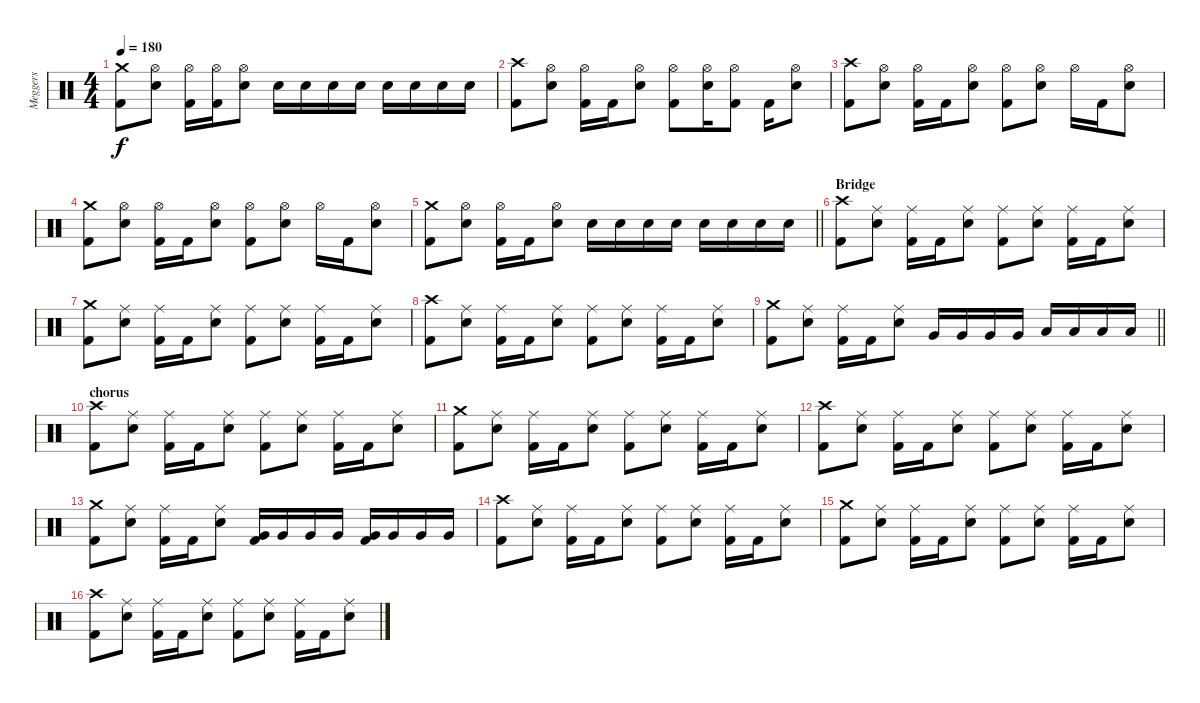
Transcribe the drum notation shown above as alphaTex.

\track ("Meggers" "Meggers") {instrument percussion}
\staff {score}
\articulation defaults
\ts (4 4)
\tempo 180
\clef neutral
\ks c
("Crash medium (hit)" "Kick (hit) 2").8{dy f} ("Hi-Hat (open)" "Snare (hit) 2").8 ("Hi-Hat (open)" "Kick (hit) 2").16 ("Hi-Hat (open)" "Kick (hit) 2").16 ("Hi-Hat (open)" "Snare (hit) 2").8 "Snare (hit) 2".16 "Snare (hit) 2".16 "Snare (hit) 2".16 "Snare (hit) 2".16 "Snare (hit) 2".16 "Snare (hit) 2".16 "Snare (hit) 2".16 "Snare (hit) 2".16 |
("Crash high (hit)" "Kick (hit) 2").8 ("Hi-Hat (open)" "Snare (hit) 2").8 ("Hi-Hat (open)" "Kick (hit) 2").16 "Kick (hit) 2".16 ("Hi-Hat (open)" "Snare (hit) 2").8 ("Hi-Hat (open)" "Kick (hit) 2").8 ("Hi-Hat (open)" "Snare (hit) 2").16 ("Hi-Hat (open)" "Kick (hit) 2").8 "Kick (hit) 2".16 ("Hi-Hat (open)" "Snare (hit) 2").8 |
("Crash high (hit)" "Kick (hit) 2").8 ("Hi-Hat (open)" "Snare (hit) 2").8 ("Hi-Hat (open)" "Kick (hit) 2").16 "Kick (hit) 2".16 ("Hi-Hat (open)" "Snare (hit) 2").8 ("Hi-Hat (open)" "Kick (hit) 2").8 ("Hi-Hat (open)" "Snare (hit) 2").8 "Hi-Hat (open)".16 "Kick (hit) 2".16 ("Hi-Hat (open)" "Snare (hit) 2").8 |
("Crash medium (hit)" "Kick (hit) 2").8 ("Hi-Hat (open)" "Snare (hit) 2").8 ("Hi-Hat (open)" "Kick (hit) 2").16 "Kick (hit) 2".16 ("Hi-Hat (open)" "Snare (hit) 2").8 ("Hi-Hat (open)" "Kick (hit) 2").8 ("Hi-Hat (open)" "Snare (hit) 2").8 "Hi-Hat (open)".16 "Kick (hit) 2".16 ("Hi-Hat (open)" "Snare (hit) 2").8 |
\barLineRight lightlight
("Crash medium (hit)" "Kick (hit) 2").8 ("Hi-Hat (open)" "Snare (hit) 2").8 ("Hi-Hat (open)" "Kick (hit) 2").16 "Kick (hit) 2".16 ("Hi-Hat (open)" "Snare (hit) 2").8 "Snare (hit) 2".16 "Snare (hit) 2".16 "Snare (hit) 2".16 "Snare (hit) 2".16 "Snare (hit) 2".16 "Snare (hit) 2".16 "Snare (hit) 2".16 "Snare (hit) 2".16 |
\section ("" "Bridge")
("Crash high (hit)" "Kick (hit) 2").8 ("Ride (middle)" "Snare (hit) 2").8 ("Ride (middle)" "Kick (hit) 2").16 "Kick (hit) 2".16 ("Ride (middle)" "Snare (hit) 2").8 ("Ride (middle)" "Kick (hit) 2").8 ("Ride (middle)" "Snare (hit) 2").8 ("Ride (middle)" "Kick (hit) 2").16 "Kick (hit) 2".16 ("Ride (middle)" "Snare (hit) 2").8 |
("Crash medium (hit)" "Kick (hit) 2").8 ("Ride (middle)" "Snare (hit) 2").8 ("Ride (middle)" "Kick (hit) 2").16 "Kick (hit) 2".16 ("Ride (middle)" "Snare (hit) 2").8 ("Ride (middle)" "Kick (hit) 2").8 ("Ride (middle)" "Snare (hit) 2").8 ("Ride (middle)" "Kick (hit) 2").16 "Kick (hit) 2".16 ("Ride (middle)" "Snare (hit) 2").8 |
("Crash high (hit)" "Kick (hit) 2").8 ("Ride (middle)" "Snare (hit) 2").8 ("Ride (middle)" "Kick (hit) 2").16 "Kick (hit) 2".16 ("Ride (middle)" "Snare (hit) 2").8 ("Ride (middle)" "Kick (hit) 2").8 ("Ride (middle)" "Snare (hit) 2").8 ("Ride (middle)" "Kick (hit) 2").16 "Kick (hit) 2".16 ("Ride (middle)" "Snare (hit) 2").8 |
\barLineRight lightlight
("Crash medium (hit)" "Kick (hit) 2").8 ("Ride (middle)" "Snare (hit) 2").8 ("Ride (middle)" "Kick (hit) 2").16 "Kick (hit) 2".16 ("Ride (middle)" "Snare (hit) 2").8 "Very Low Tom (hit)".16 "Very Low Tom (hit)".16 "Very Low Tom (hit)".16 "Very Low Tom (hit)".16 "Low Floor Tom (hit)".16 "Low Floor Tom (hit)".16 "Low Floor Tom (hit)".16 "Low Floor Tom (hit)".16 |
\section ("" "chorus")
("Crash high (hit)" "Kick (hit) 2").8 ("Ride (middle)" "Snare (hit) 2").8 ("Ride (middle)" "Kick (hit) 2").16 "Kick (hit) 2".16 ("Ride (middle)" "Snare (hit) 2").8 ("Ride (middle)" "Kick (hit) 2").8 ("Ride (middle)" "Snare (hit) 2").8 ("Ride (middle)" "Kick (hit) 2").16 "Kick (hit) 2".16 ("Ride (middle)" "Snare (hit) 2").8 |
("Crash medium (hit)" "Kick (hit) 2").8 ("Ride (middle)" "Snare (hit) 2").8 ("Ride (middle)" "Kick (hit) 2").16 "Kick (hit) 2".16 ("Ride (middle)" "Snare (hit) 2").8 ("Ride (middle)" "Kick (hit) 2").8 ("Ride (middle)" "Snare (hit) 2").8 ("Ride (middle)" "Kick (hit) 2").16 "Kick (hit) 2".16 ("Ride (middle)" "Snare (hit) 2").8 |
("Crash high (hit)" "Kick (hit) 2").8 ("Ride (middle)" "Snare (hit) 2").8 ("Ride (middle)" "Kick (hit) 2").16 "Kick (hit) 2".16 ("Ride (middle)" "Snare (hit) 2").8 ("Ride (middle)" "Kick (hit) 2").8 ("Ride (middle)" "Snare (hit) 2").8 ("Ride (middle)" "Kick (hit) 2").16 "Kick (hit) 2".16 ("Ride (middle)" "Snare (hit) 2").8 |
("Crash medium (hit)" "Kick (hit) 2").8 ("Ride (middle)" "Snare (hit) 2").8 ("Ride (middle)" "Kick (hit) 2").16 "Kick (hit) 2".16 ("Ride (middle)" "Snare (hit) 2").8 ("Very Low Tom (hit)" "Kick (hit) 2").16 "Very Low Tom (hit)".16 "Very Low Tom (hit)".16 "Very Low Tom (hit)".16 ("Very Low Tom (hit)" "Kick (hit) 2").16 "Very Low Tom (hit)".16 "Very Low Tom (hit)".16 "Very Low Tom (hit)".16 |
("Crash high (hit)" "Kick (hit) 2").8 ("Ride (middle)" "Snare (hit) 2").8 ("Ride (middle)" "Kick (hit) 2").16 "Kick (hit) 2".16 ("Ride (middle)" "Snare (hit) 2").8 ("Ride (middle)" "Kick (hit) 2").8 ("Ride (middle)" "Snare (hit) 2").8 ("Ride (middle)" "Kick (hit) 2").16 "Kick (hit) 2".16 ("Ride (middle)" "Snare (hit) 2").8 |
("Crash medium (hit)" "Kick (hit) 2").8 ("Ride (middle)" "Snare (hit) 2").8 ("Ride (middle)" "Kick (hit) 2").16 "Kick (hit) 2".16 ("Ride (middle)" "Snare (hit) 2").8 ("Ride (middle)" "Kick (hit) 2").8 ("Ride (middle)" "Snare (hit) 2").8 ("Ride (middle)" "Kick (hit) 2").16 "Kick (hit) 2".16 ("Ride (middle)" "Snare (hit) 2").8 |
("Crash high (hit)" "Kick (hit) 2").8 ("Ride (middle)" "Snare (hit) 2").8 ("Ride (middle)" "Kick (hit) 2").16 "Kick (hit) 2".16 ("Ride (middle)" "Snare (hit) 2").8 ("Ride (middle)" "Kick (hit) 2").8 ("Ride (middle)" "Snare (hit) 2").8 ("Ride (middle)" "Kick (hit) 2").16 "Kick (hit) 2".16 ("Ride (middle)" "Snare (hit) 2").8
